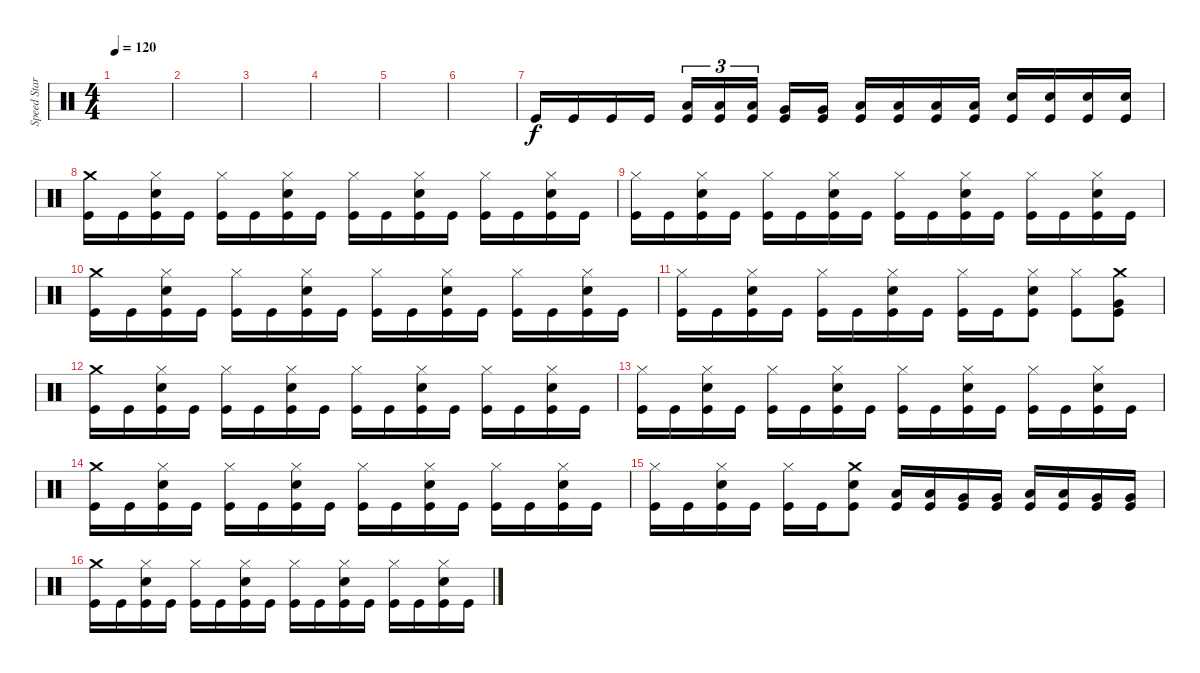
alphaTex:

\track ("Speed Star" "Speed Star") {instrument percussion}
\staff {score}
\articulation defaults
\ts (4 4)
\tempo 120
\clef neutral
\ks c
|
|
|
|
|
|
"Kick (hit)".16 "Kick (hit)".16 "Kick (hit)".16 "Kick (hit)".16 ("Kick (hit)" "Low Tom (hit)").16{tu (3 2)} ("Kick (hit)" "Low Tom (hit)").16{tu (3 2)} ("Kick (hit)" "Low Tom (hit)").16{tu (3 2)} ("Kick (hit)" "Very Low Tom (hit)").16 ("Kick (hit)" "Very Low Tom (hit)").16 ("Kick (hit)" "Low Floor Tom (hit)").16 ("Kick (hit)" "Low Floor Tom (hit)").16 ("Kick (hit)" "Low Floor Tom (hit)").16 ("Kick (hit)" "Low Floor Tom (hit)").16 ("Kick (hit)" "Snare (hit) 2").16 ("Kick (hit)" "Snare (hit) 2").16 ("Kick (hit)" "Snare (hit) 2").16 ("Kick (hit)" "Snare (hit) 2").16 |
("Kick (hit)" "Crash medium (hit)").16 "Kick (hit)".16 ("Kick (hit)" "Snare (hit) 2" "Hi-Hat (closed)").16 "Kick (hit)".16 ("Kick (hit)" "Hi-Hat (closed)").16 "Kick (hit)".16 ("Kick (hit)" "Snare (hit) 2" "Hi-Hat (closed)").16 "Kick (hit)".16 ("Kick (hit)" "Hi-Hat (closed)").16 "Kick (hit)".16 ("Kick (hit)" "Snare (hit) 2" "Hi-Hat (closed)").16 "Kick (hit)".16 ("Kick (hit)" "Hi-Hat (closed)").16 "Kick (hit)".16 ("Kick (hit)" "Snare (hit) 2" "Hi-Hat (closed)").16 "Kick (hit)".16 |
("Kick (hit)" "Hi-Hat (closed)").16 "Kick (hit)".16 ("Kick (hit)" "Snare (hit) 2" "Hi-Hat (closed)").16 "Kick (hit)".16 ("Kick (hit)" "Hi-Hat (closed)").16 "Kick (hit)".16 ("Kick (hit)" "Snare (hit) 2" "Hi-Hat (closed)").16 "Kick (hit)".16 ("Kick (hit)" "Hi-Hat (closed)").16 "Kick (hit)".16 ("Kick (hit)" "Snare (hit) 2" "Hi-Hat (closed)").16 "Kick (hit)".16 ("Kick (hit)" "Hi-Hat (closed)").16 "Kick (hit)".16 ("Kick (hit)" "Snare (hit) 2" "Hi-Hat (closed)").16 "Kick (hit)".16 |
("Kick (hit)" "Crash medium (hit)").16 "Kick (hit)".16 ("Kick (hit)" "Snare (hit) 2" "Hi-Hat (closed)").16 "Kick (hit)".16 ("Kick (hit)" "Hi-Hat (closed)").16 "Kick (hit)".16 ("Kick (hit)" "Snare (hit) 2" "Hi-Hat (closed)").16 "Kick (hit)".16 ("Kick (hit)" "Hi-Hat (closed)").16 "Kick (hit)".16 ("Kick (hit)" "Snare (hit) 2" "Hi-Hat (closed)").16 "Kick (hit)".16 ("Kick (hit)" "Hi-Hat (closed)").16 "Kick (hit)".16 ("Kick (hit)" "Snare (hit) 2" "Hi-Hat (closed)").16 "Kick (hit)".16 |
("Kick (hit)" "Hi-Hat (closed)").16 "Kick (hit)".16 ("Kick (hit)" "Snare (hit) 2" "Hi-Hat (closed)").16 "Kick (hit)".16 ("Kick (hit)" "Hi-Hat (closed)").16 "Kick (hit)".16 ("Kick (hit)" "Snare (hit) 2" "Hi-Hat (closed)").16 "Kick (hit)".16 ("Kick (hit)" "Hi-Hat (closed)").16 "Kick (hit)".16 ("Kick (hit)" "Snare (hit) 2" "Hi-Hat (closed)").8 ("Kick (hit)" "Hi-Hat (closed)").8 ("Kick (hit)" "Very Low Tom (hit)" "Crash medium (hit)").8 |
("Kick (hit)" "Crash medium (hit)").16 "Kick (hit)".16 ("Kick (hit)" "Snare (hit) 2" "Hi-Hat (closed)").16 "Kick (hit)".16 ("Kick (hit)" "Hi-Hat (closed)").16 "Kick (hit)".16 ("Kick (hit)" "Snare (hit) 2" "Hi-Hat (closed)").16 "Kick (hit)".16 ("Kick (hit)" "Hi-Hat (closed)").16 "Kick (hit)".16 ("Kick (hit)" "Snare (hit) 2" "Hi-Hat (closed)").16 "Kick (hit)".16 ("Kick (hit)" "Hi-Hat (closed)").16 "Kick (hit)".16 ("Kick (hit)" "Snare (hit) 2" "Hi-Hat (closed)").16 "Kick (hit)".16 |
("Kick (hit)" "Hi-Hat (closed)").16 "Kick (hit)".16 ("Kick (hit)" "Snare (hit) 2" "Hi-Hat (closed)").16 "Kick (hit)".16 ("Kick (hit)" "Hi-Hat (closed)").16 "Kick (hit)".16 ("Kick (hit)" "Snare (hit) 2" "Hi-Hat (closed)").16 "Kick (hit)".16 ("Kick (hit)" "Hi-Hat (closed)").16 "Kick (hit)".16 ("Kick (hit)" "Snare (hit) 2" "Hi-Hat (closed)").16 "Kick (hit)".16 ("Kick (hit)" "Hi-Hat (closed)").16 "Kick (hit)".16 ("Kick (hit)" "Snare (hit) 2" "Hi-Hat (closed)").16 "Kick (hit)".16 |
("Kick (hit)" "Crash medium (hit)").16 "Kick (hit)".16 ("Kick (hit)" "Snare (hit) 2" "Hi-Hat (closed)").16 "Kick (hit)".16 ("Kick (hit)" "Hi-Hat (closed)").16 "Kick (hit)".16 ("Kick (hit)" "Snare (hit) 2" "Hi-Hat (closed)").16 "Kick (hit)".16 ("Kick (hit)" "Hi-Hat (closed)").16 "Kick (hit)".16 ("Kick (hit)" "Snare (hit) 2" "Hi-Hat (closed)").16 "Kick (hit)".16 ("Kick (hit)" "Hi-Hat (closed)").16 "Kick (hit)".16 ("Kick (hit)" "Snare (hit) 2" "Hi-Hat (closed)").16 "Kick (hit)".16 |
("Kick (hit)" "Hi-Hat (closed)").16 "Kick (hit)".16 ("Kick (hit)" "Snare (hit) 2" "Hi-Hat (closed)").16 "Kick (hit)".16 ("Kick (hit)" "Hi-Hat (closed)").16 "Kick (hit)".16 ("Kick (hit)" "Snare (hit) 2" "Crash medium (hit)").8 ("Kick (hit)" "Low Floor Tom (hit)").16 ("Kick (hit)" "Low Floor Tom (hit)").16 ("Kick (hit)" "Very Low Tom (hit)").16 ("Kick (hit)" "Very Low Tom (hit)").16 ("Kick (hit)" "Low Tom (hit)").16 ("Kick (hit)" "Low Tom (hit)").16 ("Kick (hit)" "Very Low Tom (hit)").16 ("Kick (hit)" "Very Low Tom (hit)").16 |
("Kick (hit)" "Crash medium (hit)").16 "Kick (hit)".16 ("Kick (hit)" "Snare (hit) 2" "Hi-Hat (closed)").16 "Kick (hit)".16 ("Kick (hit)" "Hi-Hat (closed)").16 "Kick (hit)".16 ("Kick (hit)" "Snare (hit) 2" "Hi-Hat (closed)").16 "Kick (hit)".16 ("Kick (hit)" "Hi-Hat (closed)").16 "Kick (hit)".16 ("Kick (hit)" "Snare (hit) 2" "Hi-Hat (closed)").16 "Kick (hit)".16 ("Kick (hit)" "Hi-Hat (closed)").16 "Kick (hit)".16 ("Kick (hit)" "Snare (hit) 2" "Hi-Hat (closed)").16 "Kick (hit)".16
